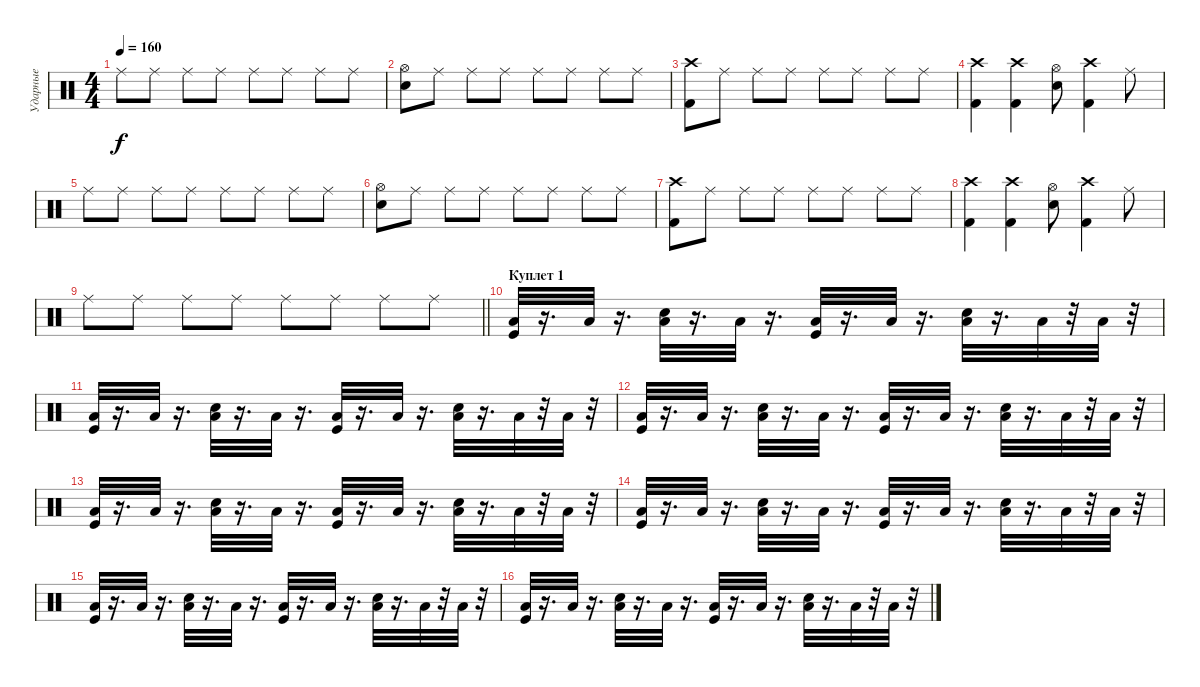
\track ("Ударные" "Ударные") {instrument percussion}
\staff {score}
\articulation defaults
\ts (4 4)
\tempo 160
\clef neutral
\ks c "Ride (middle)".8{dy f} "Ride (middle)".8 "Ride (middle)".8 "Ride (middle)".8 "Ride (middle)".8 "Ride (middle)".8 "Ride (middle)".8 "Ride (middle)".8
|
("Hi-Hat (open)" "Snare (hit) 2").8 "Ride (middle)".8 "Ride (middle)".8 "Ride (middle)".8 "Ride (middle)".8 "Ride (middle)".8 "Ride (middle)".8 "Ride (middle)".8 |
("Crash high (hit)" "Kick (hit) 2").8 "Ride (middle)".8 "Ride (middle)".8 "Ride (middle)".8 "Ride (middle)".8 "Ride (middle)".8 "Ride (middle)".8 "Ride (middle)".8 |
("Crash high (hit)" "Kick (hit) 2").4 ("Crash high (hit)" "Kick (hit) 2").4 ("Hi-Hat (open)" "Snare (hit) 2").8 ("Crash high (hit)" "Kick (hit) 2").4 "Ride (middle)".8 |
"Ride (middle)".8 "Ride (middle)".8 "Ride (middle)".8 "Ride (middle)".8 "Ride (middle)".8 "Ride (middle)".8 "Ride (middle)".8 "Ride (middle)".8 |
("Hi-Hat (open)" "Snare (hit) 2").8 "Ride (middle)".8 "Ride (middle)".8 "Ride (middle)".8 "Ride (middle)".8 "Ride (middle)".8 "Ride (middle)".8 "Ride (middle)".8 |
("Crash high (hit)" "Kick (hit) 2").8 "Ride (middle)".8 "Ride (middle)".8 "Ride (middle)".8 "Ride (middle)".8 "Ride (middle)".8 "Ride (middle)".8 "Ride (middle)".8 |
("Crash high (hit)" "Kick (hit) 2").4 ("Crash high (hit)" "Kick (hit) 2").4 ("Hi-Hat (open)" "Snare (hit) 2").8 ("Crash high (hit)" "Kick (hit) 2").4 "Ride (middle)".8 |
\barLineRight lightlight "Ride (middle)".8 "Ride (middle)".8 "Ride (middle)".8 "Ride (middle)".8 "Ride (middle)".8 "Ride (middle)".8 "Ride (middle)".8 "Ride (middle)".8
|
\section ("" "Куплет 1")
("Kick (hit)" "Low Floor Tom (hit)").32 r.16{d} "Low Floor Tom (hit)".32 r.16{d} ("Low Floor Tom (hit)" "Snare (hit) 2").32 r.16{d} "Low Floor Tom (hit)".32 r.16{d} ("Kick (hit)" "Low Floor Tom (hit)").32 r.16{d} "Low Floor Tom (hit)".32 r.16{d} ("Low Floor Tom (hit)" "Snare (hit) 2").32 r.16{d} "Low Floor Tom (hit)".32 r.32 "Low Floor Tom (hit)".32 r.32 |
("Kick (hit)" "Low Floor Tom (hit)").32 r.16{d} "Low Floor Tom (hit)".32 r.16{d} ("Low Floor Tom (hit)" "Snare (hit) 2").32 r.16{d} "Low Floor Tom (hit)".32 r.16{d} ("Low Floor Tom (hit)" "Kick (hit)").32 r.16{d} "Low Floor Tom (hit)".32 r.16{d} ("Snare (hit) 2" "Low Floor Tom (hit)").32 r.16{d} "Low Floor Tom (hit)".32 r.32 "Low Floor Tom (hit)".32 r.32 |
("Kick (hit)" "Low Floor Tom (hit)").32 r.16{d} "Low Floor Tom (hit)".32 r.16{d} ("Low Floor Tom (hit)" "Snare (hit) 2").32 r.16{d} "Low Floor Tom (hit)".32 r.16{d} ("Kick (hit)" "Low Floor Tom (hit)").32 r.16{d} "Low Floor Tom (hit)".32 r.16{d} ("Low Floor Tom (hit)" "Snare (hit) 2").32 r.16{d} "Low Floor Tom (hit)".32 r.32 "Low Floor Tom (hit)".32 r.32 |
("Kick (hit)" "Low Floor Tom (hit)").32 r.16{d} "Low Floor Tom (hit)".32 r.16{d} ("Low Floor Tom (hit)" "Snare (hit) 2").32 r.16{d} "Low Floor Tom (hit)".32 r.16{d} ("Low Floor Tom (hit)" "Kick (hit)").32 r.16{d} "Low Floor Tom (hit)".32 r.16{d} ("Snare (hit) 2" "Low Floor Tom (hit)").32 r.16{d} "Low Floor Tom (hit)".32 r.32 "Low Floor Tom (hit)".32 r.32 |
("Kick (hit)" "Low Floor Tom (hit)").32 r.16{d} "Low Floor Tom (hit)".32 r.16{d} ("Low Floor Tom (hit)" "Snare (hit) 2").32 r.16{d} "Low Floor Tom (hit)".32 r.16{d} ("Kick (hit)" "Low Floor Tom (hit)").32 r.16{d} "Low Floor Tom (hit)".32 r.16{d} ("Low Floor Tom (hit)" "Snare (hit) 2").32 r.16{d} "Low Floor Tom (hit)".32 r.32 "Low Floor Tom (hit)".32 r.32 |
("Kick (hit)" "Low Floor Tom (hit)").32 r.16{d} "Low Floor Tom (hit)".32 r.16{d} ("Low Floor Tom (hit)" "Snare (hit) 2").32 r.16{d} "Low Floor Tom (hit)".32 r.16{d} ("Low Floor Tom (hit)" "Kick (hit)").32 r.16{d} "Low Floor Tom (hit)".32 r.16{d} ("Snare (hit) 2" "Low Floor Tom (hit)").32 r.16{d} "Low Floor Tom (hit)".32 r.32 "Low Floor Tom (hit)".32 r.32 |
("Kick (hit)" "Low Floor Tom (hit)").32 r.16{d} "Low Floor Tom (hit)".32 r.16{d} ("Low Floor Tom (hit)" "Snare (hit) 2").32 r.16{d} "Low Floor Tom (hit)".32 r.16{d} ("Kick (hit)" "Low Floor Tom (hit)").32 r.16{d} "Low Floor Tom (hit)".32 r.16{d} ("Low Floor Tom (hit)" "Snare (hit) 2").32 r.16{d} "Low Floor Tom (hit)".32 r.32 "Low Floor Tom (hit)".32 r.32
